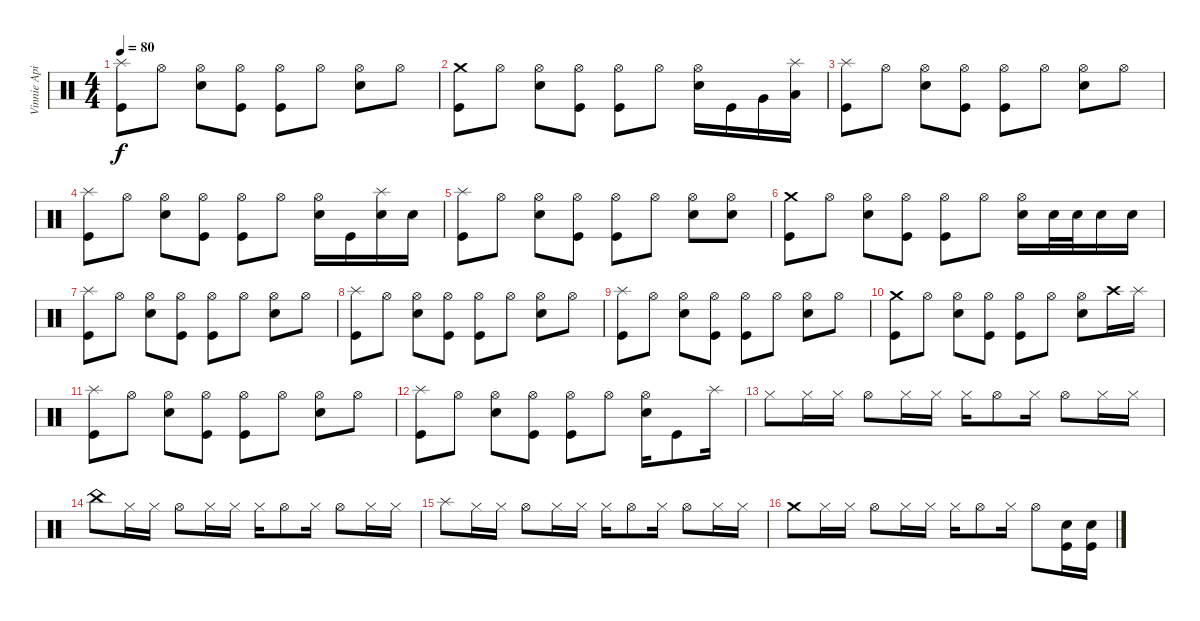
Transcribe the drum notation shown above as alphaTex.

\track ("Vinnie Apice" "Vinnie Api") {instrument percussion}
\staff {score}
\articulation defaults
\ts (4 4)
\tempo 80
\clef neutral
\ks c
("Splash (hit)" "Kick (hit)").8{dy f} "Hi-Hat (open)".8 ("Hi-Hat (open)" "Snare (hit) 2").8 ("Hi-Hat (open)" "Kick (hit)").8 ("Hi-Hat (open)" "Kick (hit)").8 "Hi-Hat (open)".8 ("Hi-Hat (open)" "Snare (hit) 2").8 "Hi-Hat (open)".8 |
("Crash medium (hit)" "Kick (hit)").8 "Hi-Hat (open)".8 ("Hi-Hat (open)" "Snare (hit) 2").8 ("Hi-Hat (open)" "Kick (hit)").8 ("Hi-Hat (open)" "Kick (hit)").8 "Hi-Hat (open)".8 ("Hi-Hat (open)" "Snare (hit) 2").16 "Kick (hit)".16 "Very Low Tom (hit)".16 ("Splash (hit)" "Low Tom (hit)").16 |
("Splash (hit)" "Kick (hit)").8 "Hi-Hat (open)".8 ("Hi-Hat (open)" "Snare (hit) 2").8 ("Hi-Hat (open)" "Kick (hit)").8 ("Hi-Hat (open)" "Kick (hit)").8 "Hi-Hat (open)".8 ("Hi-Hat (open)" "Snare (hit) 2").8 "Hi-Hat (open)".8 |
("Splash (hit)" "Kick (hit)").8 "Hi-Hat (open)".8 ("Hi-Hat (open)" "Snare (hit) 2").8 ("Hi-Hat (open)" "Kick (hit)").8 ("Hi-Hat (open)" "Kick (hit)").8 "Hi-Hat (open)".8 ("Hi-Hat (open)" "Snare (hit) 2").16 "Kick (hit)".16 ("Splash (hit)" "Snare (hit) 2").16 "Snare (hit) 2".16 |
("Splash (hit)" "Kick (hit)").8 "Hi-Hat (open)".8 ("Hi-Hat (open)" "Snare (hit) 2").8 ("Hi-Hat (open)" "Kick (hit)").8 ("Hi-Hat (open)" "Kick (hit)").8 "Hi-Hat (open)".8 ("Hi-Hat (open)" "Snare (hit) 2").8 ("Hi-Hat (open)" "Snare (hit) 2").8 |
("Crash medium (hit)" "Kick (hit)").8 "Hi-Hat (open)".8 ("Hi-Hat (open)" "Snare (hit) 2").8 ("Hi-Hat (open)" "Kick (hit)").8 ("Hi-Hat (open)" "Kick (hit)").8 "Hi-Hat (open)".8 ("Hi-Hat (open)" "Snare (hit) 2").16 "Snare (hit) 2".32 "Snare (hit) 2".32 "Snare (hit) 2".16 "Snare (hit) 2".16 |
("Splash (hit)" "Kick (hit)").8 "Hi-Hat (open)".8 ("Hi-Hat (open)" "Snare (hit) 2").8 ("Hi-Hat (open)" "Kick (hit)").8 ("Hi-Hat (open)" "Kick (hit)").8 "Hi-Hat (open)".8 ("Hi-Hat (open)" "Snare (hit) 2").8 "Hi-Hat (open)".8 |
("Splash (hit)" "Kick (hit)").8 "Hi-Hat (open)".8 ("Hi-Hat (open)" "Snare (hit) 2").8 ("Hi-Hat (open)" "Kick (hit)").8 ("Hi-Hat (open)" "Kick (hit)").8 "Hi-Hat (open)".8 ("Hi-Hat (open)" "Snare (hit) 2").8 "Hi-Hat (open)".8 |
("Splash (hit)" "Kick (hit)").8 "Hi-Hat (open)".8 ("Hi-Hat (open)" "Snare (hit) 2").8 ("Hi-Hat (open)" "Kick (hit)").8 ("Hi-Hat (open)" "Kick (hit)").8 "Hi-Hat (open)".8 ("Hi-Hat (open)" "Snare (hit) 2").8 "Hi-Hat (open)".8 |
("Crash medium (hit)" "Kick (hit)").8 "Hi-Hat (open)".8 ("Hi-Hat (open)" "Snare (hit) 2").8 ("Hi-Hat (open)" "Kick (hit)").8 ("Hi-Hat (open)" "Kick (hit)").8 "Hi-Hat (open)".8 ("Hi-Hat (open)" "Snare (hit) 2").8 "Crash high (hit)".16 "Splash (hit)".16 |
("Splash (hit)" "Kick (hit)").8 "Hi-Hat (open)".8 ("Hi-Hat (open)" "Snare (hit) 2").8 ("Hi-Hat (open)" "Kick (hit)").8 ("Hi-Hat (open)" "Kick (hit)").8 "Hi-Hat (open)".8 ("Hi-Hat (open)" "Snare (hit) 2").8 "Hi-Hat (open)".8 |
("Splash (hit)" "Kick (hit)").8 "Hi-Hat (open)".8 ("Hi-Hat (open)" "Snare (hit) 2").8 ("Hi-Hat (open)" "Kick (hit)").8 ("Hi-Hat (open)" "Kick (hit)").8 "Hi-Hat (open)".8 ("Hi-Hat (open)" "Snare (hit) 2").16 "Kick (hit)".8 "Splash (hit)".16 |
"Hi-Hat (closed)".8 "Hi-Hat (closed)".16 "Hi-Hat (closed)".16 "Hi-Hat (open)".8 "Hi-Hat (closed)".16 "Hi-Hat (closed)".16 "Hi-Hat (closed)".16 "Hi-Hat (open)".8 "Hi-Hat (closed)".16 "Hi-Hat (open)".8 "Hi-Hat (closed)".16 "Hi-Hat (closed)".16 |
"China (hit)".8 "Hi-Hat (closed)".16 "Hi-Hat (closed)".16 "Hi-Hat (open)".8 "Hi-Hat (closed)".16 "Hi-Hat (closed)".16 "Hi-Hat (closed)".16 "Hi-Hat (open)".8 "Hi-Hat (closed)".16 "Hi-Hat (open)".8 "Hi-Hat (closed)".16 "Hi-Hat (closed)".16 |
"Splash (hit)".8 "Hi-Hat (closed)".16 "Hi-Hat (closed)".16 "Hi-Hat (open)".8 "Hi-Hat (closed)".16 "Hi-Hat (closed)".16 "Hi-Hat (closed)".16 "Hi-Hat (open)".8 "Hi-Hat (closed)".16 "Hi-Hat (open)".8 "Hi-Hat (closed)".16 "Hi-Hat (closed)".16 |
"Crash medium (hit)".8 "Hi-Hat (closed)".16 "Hi-Hat (closed)".16 "Hi-Hat (open)".8 "Hi-Hat (closed)".16 "Hi-Hat (closed)".16 "Hi-Hat (closed)".16 "Hi-Hat (open)".8 "Hi-Hat (closed)".16 "Hi-Hat (open)".8 ("Snare (hit) 2" "Kick (hit)").16 ("Snare (hit) 2" "Kick (hit)").16
